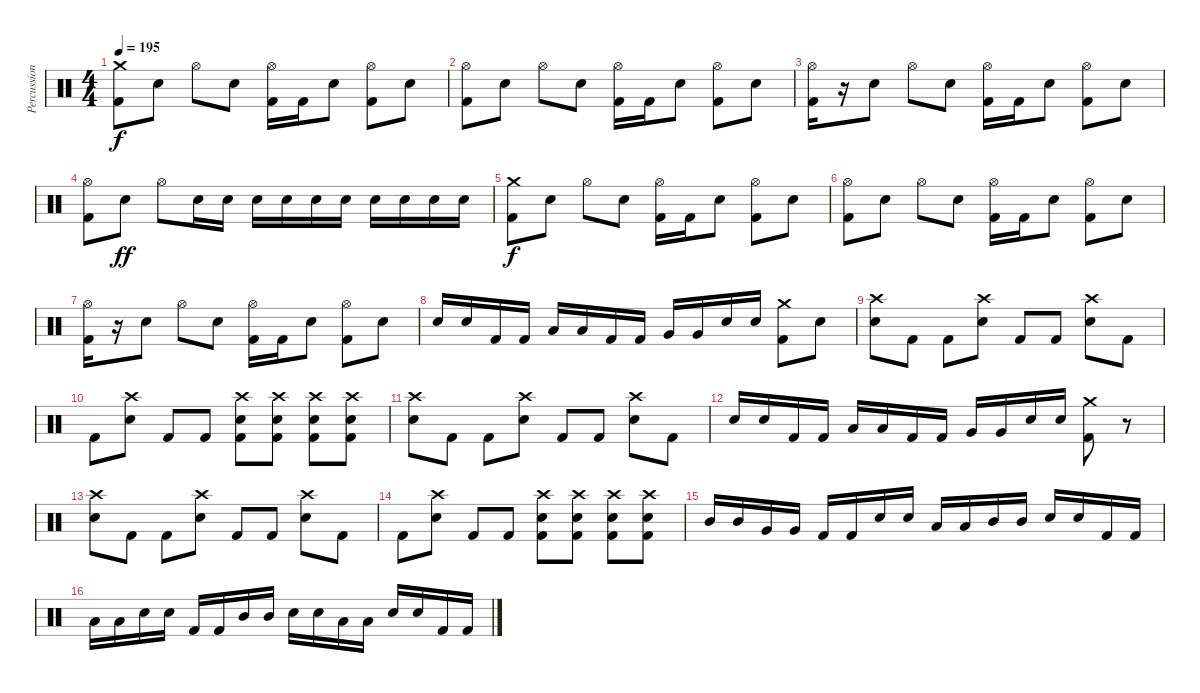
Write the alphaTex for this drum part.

\track ("Percussion" "Percussion") {instrument percussion}
\staff {score}
\articulation defaults
\ts (4 4)
\tempo 195
\clef neutral
\ks c
("Crash medium (hit)" "Kick (hit) 2").8{dy f} "Electric Snare (hit)".8 "Hi-Hat (open)".8 "Electric Snare (hit)".8 ("Hi-Hat (open)" "Kick (hit) 2").16 "Kick (hit) 2".16 "Electric Snare (hit)".8 ("Hi-Hat (open)" "Kick (hit) 2").8 "Electric Snare (hit)".8 |
("Hi-Hat (open)" "Kick (hit) 2").8 "Electric Snare (hit)".8 "Hi-Hat (open)".8 "Electric Snare (hit)".8 ("Hi-Hat (open)" "Kick (hit) 2").16 "Kick (hit) 2".16 "Electric Snare (hit)".8 ("Hi-Hat (open)" "Kick (hit) 2").8 "Electric Snare (hit)".8 |
("Hi-Hat (open)" "Kick (hit) 2").16 r.16 "Electric Snare (hit)".8 "Hi-Hat (open)".8 "Electric Snare (hit)".8 ("Hi-Hat (open)" "Kick (hit) 2").16 "Kick (hit) 2".16 "Electric Snare (hit)".8 ("Hi-Hat (open)" "Kick (hit) 2").8 "Electric Snare (hit)".8 |
("Hi-Hat (open)" "Kick (hit) 2").8 "Electric Snare (hit)".8{dy ff} "Hi-Hat (open)".8 "Electric Snare (hit)".16 "Electric Snare (hit)".16 "Electric Snare (hit)".16 "Electric Snare (hit)".16 "Electric Snare (hit)".16 "Electric Snare (hit)".16 "Electric Snare (hit)".16 "Electric Snare (hit)".16 "Electric Snare (hit)".16 "Electric Snare (hit)".16 |
("Crash medium (hit)" "Kick (hit) 2").8{dy f} "Electric Snare (hit)".8 "Hi-Hat (open)".8 "Electric Snare (hit)".8 ("Hi-Hat (open)" "Kick (hit) 2").16 "Kick (hit) 2".16 "Electric Snare (hit)".8 ("Hi-Hat (open)" "Kick (hit) 2").8 "Electric Snare (hit)".8 |
("Hi-Hat (open)" "Kick (hit) 2").8 "Electric Snare (hit)".8 "Hi-Hat (open)".8 "Electric Snare (hit)".8 ("Hi-Hat (open)" "Kick (hit) 2").16 "Kick (hit) 2".16 "Electric Snare (hit)".8 ("Hi-Hat (open)" "Kick (hit) 2").8 "Electric Snare (hit)".8 |
("Hi-Hat (open)" "Kick (hit) 2").16 r.16 "Electric Snare (hit)".8 "Hi-Hat (open)".8 "Electric Snare (hit)".8 ("Hi-Hat (open)" "Kick (hit) 2").16 "Kick (hit) 2".16 "Electric Snare (hit)".8 ("Hi-Hat (open)" "Kick (hit) 2").8 "Electric Snare (hit)".8 |
"Electric Snare (hit)".16 "Electric Snare (hit)".16 "Kick (hit) 2".16 "Kick (hit) 2".16 "Low Tom (hit)".16 "Low Tom (hit)".16 "Kick (hit) 2".16 "Kick (hit) 2".16 "Very Low Tom (hit)".16 "Very Low Tom (hit)".16 "Electric Snare (hit)".16 "Electric Snare (hit)".16 ("Crash medium (hit)" "Kick (hit) 2").8 "Electric Snare (hit)".8 |
("Crash high (hit)" "Electric Snare (hit)").8 "Kick (hit) 2".8 "Kick (hit) 2".8 ("Crash high (hit)" "Electric Snare (hit)").8 "Kick (hit) 2".8 "Kick (hit) 2".8 ("Crash high (hit)" "Electric Snare (hit)").8 "Kick (hit) 2".8 |
"Kick (hit) 2".8 ("Crash high (hit)" "Electric Snare (hit)").8 "Kick (hit) 2".8 "Kick (hit) 2".8 ("Crash high (hit)" "Electric Snare (hit)" "Kick (hit) 2").8 ("Crash high (hit)" "Electric Snare (hit)" "Kick (hit) 2").8 ("Crash high (hit)" "Electric Snare (hit)" "Kick (hit) 2").8 ("Crash high (hit)" "Electric Snare (hit)" "Kick (hit) 2").8 |
("Crash high (hit)" "Electric Snare (hit)").8 "Kick (hit) 2".8 "Kick (hit) 2".8 ("Crash high (hit)" "Electric Snare (hit)").8 "Kick (hit) 2".8 "Kick (hit) 2".8 ("Crash high (hit)" "Electric Snare (hit)").8 "Kick (hit) 2".8 |
"Electric Snare (hit)".16 "Electric Snare (hit)".16 "Kick (hit) 2".16 "Kick (hit) 2".16 "Low Tom (hit)".16 "Low Tom (hit)".16 "Kick (hit) 2".16 "Kick (hit) 2".16 "Very Low Tom (hit)".16 "Very Low Tom (hit)".16 "Electric Snare (hit)".16 "Electric Snare (hit)".16 ("Crash medium (hit)" "Kick (hit) 2").8 r.8 |
("Crash high (hit)" "Electric Snare (hit)").8 "Kick (hit) 2".8 "Kick (hit) 2".8 ("Crash high (hit)" "Electric Snare (hit)").8 "Kick (hit) 2".8 "Kick (hit) 2".8 ("Crash high (hit)" "Electric Snare (hit)").8 "Kick (hit) 2".8 |
"Kick (hit) 2".8 ("Crash high (hit)" "Electric Snare (hit)").8 "Kick (hit) 2".8 "Kick (hit) 2".8 ("Crash high (hit)" "Electric Snare (hit)" "Kick (hit) 2").8 ("Crash high (hit)" "Electric Snare (hit)" "Kick (hit) 2").8 ("Crash high (hit)" "Electric Snare (hit)" "Kick (hit) 2").8 ("Crash high (hit)" "Electric Snare (hit)" "Kick (hit) 2").8 |
"Mid Tom (hit)".16 "Mid Tom (hit)".16 "Very Low Tom (hit)".16 "Very Low Tom (hit)".16 "Kick (hit) 2".16 "Kick (hit) 2".16 "Electric Snare (hit)".16 "Electric Snare (hit)".16 "Low Tom (hit)".16 "Low Tom (hit)".16 "Mid Tom (hit)".16 "Mid Tom (hit)".16 "Electric Snare (hit)".16 "Electric Snare (hit)".16 "Kick (hit) 2".16 "Kick (hit) 2".16 |
"Low Tom (hit)".16 "Low Tom (hit)".16 "Electric Snare (hit)".16 "Electric Snare (hit)".16 "Kick (hit) 2".16 "Kick (hit) 2".16 "Mid Tom (hit)".16 "Mid Tom (hit)".16 "Electric Snare (hit)".16 "Electric Snare (hit)".16 "Low Tom (hit)".16 "Low Tom (hit)".16 "Electric Snare (hit)".16 "Electric Snare (hit)".16 "Kick (hit) 2".16 "Kick (hit) 2".16
